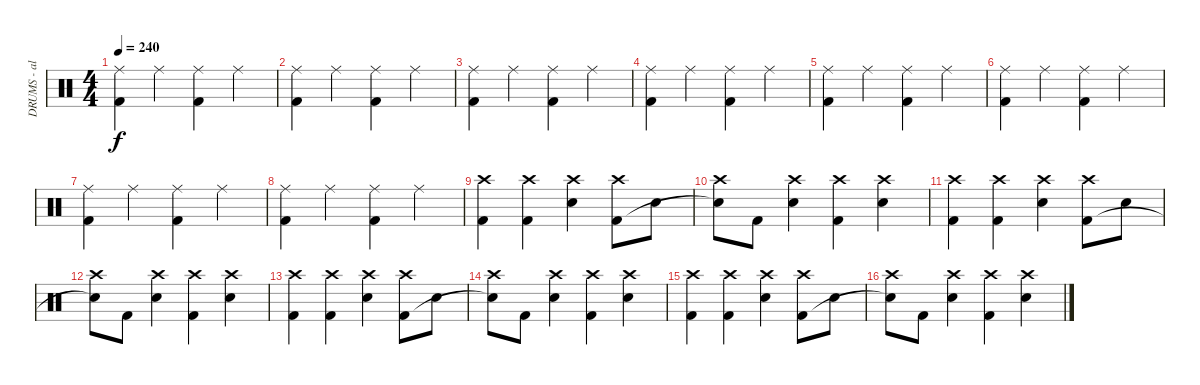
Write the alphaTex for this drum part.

\track ("DRUMS - alastor" "DRUMS - al") {instrument percussion}
\staff {score}
\articulation defaults
\ts (4 4)
\tempo 240
\clef neutral
\ks c
("Ride (middle)" "Kick (hit) 2").4{dy f} "Ride (middle)".4 ("Ride (middle)" "Kick (hit) 2").4 "Ride (middle)".4 |
("Ride (middle)" "Kick (hit) 2").4 "Ride (middle)".4 ("Ride (middle)" "Kick (hit) 2").4 "Ride (middle)".4 |
("Ride (middle)" "Kick (hit) 2").4 "Ride (middle)".4 ("Ride (middle)" "Kick (hit) 2").4 "Ride (middle)".4 |
("Ride (middle)" "Kick (hit) 2").4 "Ride (middle)".4 ("Ride (middle)" "Kick (hit) 2").4 "Ride (middle)".4 |
("Ride (middle)" "Kick (hit) 2").4 "Ride (middle)".4 ("Ride (middle)" "Kick (hit) 2").4 "Ride (middle)".4 |
("Ride (middle)" "Kick (hit) 2").4 "Ride (middle)".4 ("Ride (middle)" "Kick (hit) 2").4 "Ride (middle)".4 |
("Ride (middle)" "Kick (hit) 2").4 "Ride (middle)".4 ("Ride (middle)" "Kick (hit) 2").4 "Ride (middle)".4 |
("Ride (middle)" "Kick (hit) 2").4 "Ride (middle)".4 ("Ride (middle)" "Kick (hit) 2").4 "Ride (middle)".4 |
("Crash high (hit)" "Kick (hit) 2").4 ("Crash high (hit)" "Kick (hit) 2").4 ("Crash high (hit)" "Snare (hit) 2").4 ("Crash high (hit)" "Kick (hit) 2").8 "Snare (hit) 2".8 |
("Crash high (hit)" "Snare (hit) 2"{t}).8 "Kick (hit) 2".8 ("Crash high (hit)" "Snare (hit) 2").4 ("Crash high (hit)" "Kick (hit) 2").4 ("Crash high (hit)" "Snare (hit) 2").4 |
("Crash high (hit)" "Kick (hit) 2").4 ("Crash high (hit)" "Kick (hit) 2").4 ("Crash high (hit)" "Snare (hit) 2").4 ("Crash high (hit)" "Kick (hit) 2").8 "Snare (hit) 2".8 |
("Crash high (hit)" "Snare (hit) 2"{t}).8 "Kick (hit) 2".8 ("Crash high (hit)" "Snare (hit) 2").4 ("Crash high (hit)" "Kick (hit) 2").4 ("Crash high (hit)" "Snare (hit) 2").4 |
("Crash high (hit)" "Kick (hit) 2").4 ("Crash high (hit)" "Kick (hit) 2").4 ("Crash high (hit)" "Snare (hit) 2").4 ("Crash high (hit)" "Kick (hit) 2").8 "Snare (hit) 2".8 |
("Crash high (hit)" "Snare (hit) 2"{t}).8 "Kick (hit) 2".8 ("Crash high (hit)" "Snare (hit) 2").4 ("Crash high (hit)" "Kick (hit) 2").4 ("Crash high (hit)" "Snare (hit) 2").4 |
("Crash high (hit)" "Kick (hit) 2").4 ("Crash high (hit)" "Kick (hit) 2").4 ("Crash high (hit)" "Snare (hit) 2").4 ("Crash high (hit)" "Kick (hit) 2").8 "Snare (hit) 2".8 |
("Crash high (hit)" "Snare (hit) 2"{t}).8 "Kick (hit) 2".8 ("Crash high (hit)" "Snare (hit) 2").4 ("Crash high (hit)" "Kick (hit) 2").4 ("Crash high (hit)" "Snare (hit) 2").4
